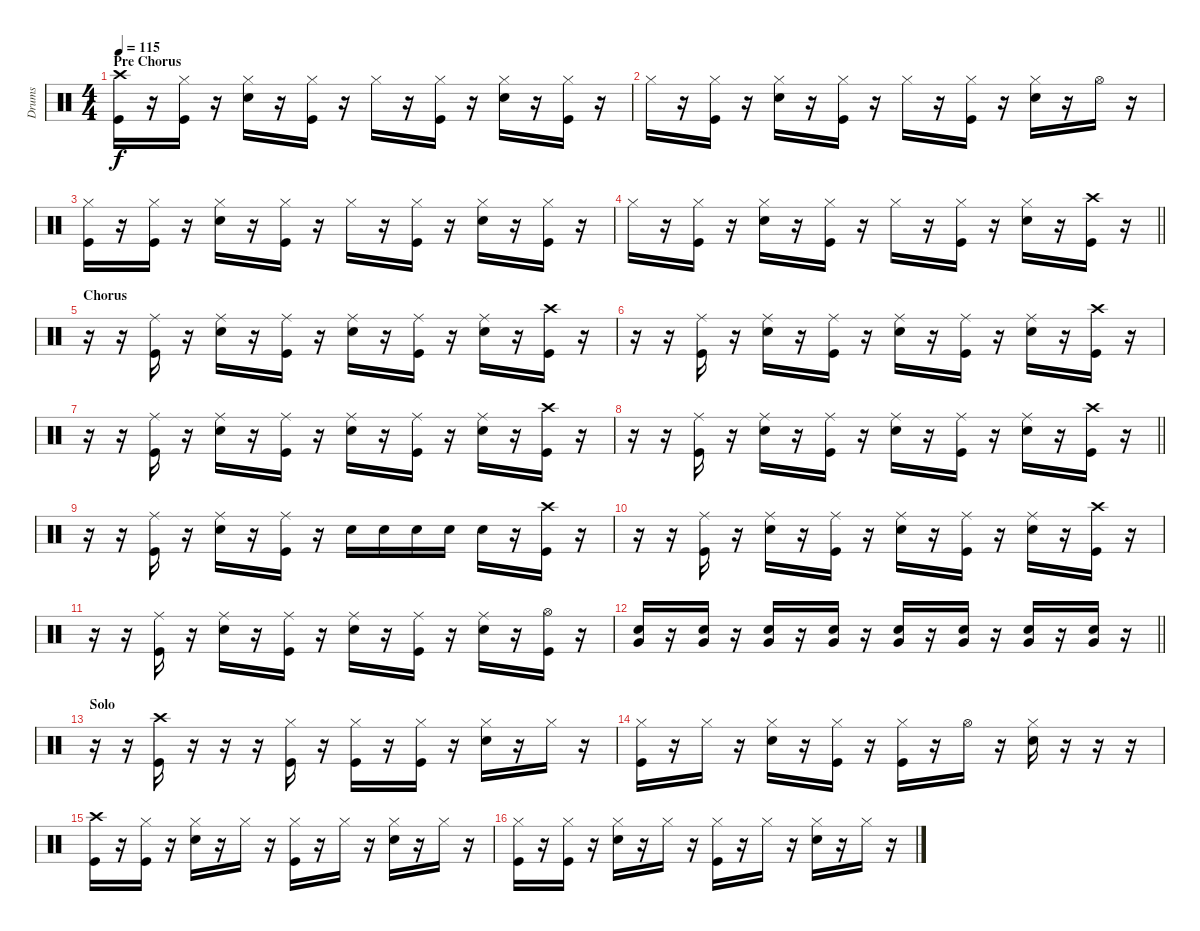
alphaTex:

\track ("Drums" "Drums") {instrument percussion}
\staff {score}
\articulation defaults
\ts (4 4)
\section ("" "Pre Chorus")
\tempo 115
\clef neutral
\ks c
("Crash high (hit)" "Kick (hit)").16{dy f} r.16 ("Hi-Hat (closed)" "Kick (hit)").16 r.16 ("Hi-Hat (closed)" "Snare (hit) 2").16 r.16 ("Hi-Hat (closed)" "Kick (hit)").16 r.16 "Hi-Hat (closed)".16 r.16 ("Hi-Hat (closed)" "Kick (hit)").16 r.16 ("Hi-Hat (closed)" "Snare (hit) 2").16 r.16 ("Hi-Hat (closed)" "Kick (hit)").16 r.16 |
"Hi-Hat (closed)".16 r.16 ("Hi-Hat (closed)" "Kick (hit)").16 r.16 ("Hi-Hat (closed)" "Snare (hit) 2").16 r.16 ("Hi-Hat (closed)" "Kick (hit)").16 r.16 "Hi-Hat (closed)".16 r.16 ("Hi-Hat (closed)" "Kick (hit)").16 r.16 ("Hi-Hat (closed)" "Snare (hit) 2").16 r.16 "Hi-Hat (open)".16 r.16 |
("Hi-Hat (closed)" "Kick (hit)").16 r.16 ("Hi-Hat (closed)" "Kick (hit)").16 r.16 ("Hi-Hat (closed)" "Snare (hit) 2").16 r.16 ("Hi-Hat (closed)" "Kick (hit)").16 r.16 "Hi-Hat (closed)".16 r.16 ("Hi-Hat (closed)" "Kick (hit)").16 r.16 ("Hi-Hat (closed)" "Snare (hit) 2").16 r.16 ("Hi-Hat (closed)" "Kick (hit)").16 r.16 |
\barLineRight lightlight "Hi-Hat (closed)".16
r.16 ("Hi-Hat (closed)" "Kick (hit)").16 r.16 ("Hi-Hat (closed)" "Snare (hit) 2").16 r.16 ("Hi-Hat (closed)" "Kick (hit)").16 r.16 "Hi-Hat (closed)".16 r.16 ("Hi-Hat (closed)" "Kick (hit)").16 r.16 ("Hi-Hat (closed)" "Snare (hit) 2").16 r.16 ("Crash high (hit)" "Kick (hit)").16 r.16 |
\section ("" "Chorus")
r.16 r.16 ("Ride (middle)" "Kick (hit)").16 r.16 ("Ride (middle)" "Snare (hit) 2").16 r.16 ("Ride (middle)" "Kick (hit)").16 r.16 ("Ride (middle)" "Snare (hit) 2").16 r.16 ("Ride (middle)" "Kick (hit)").16 r.16 ("Ride (middle)" "Snare (hit) 2").16 r.16 ("Crash high (hit)" "Kick (hit)").16 r.16 |
r.16 r.16 ("Ride (middle)" "Kick (hit)").16 r.16 ("Ride (middle)" "Snare (hit) 2").16 r.16 ("Ride (middle)" "Kick (hit)").16 r.16 ("Ride (middle)" "Snare (hit) 2").16 r.16 ("Ride (middle)" "Kick (hit)").16 r.16 ("Ride (middle)" "Snare (hit) 2").16 r.16 ("Crash high (hit)" "Kick (hit)").16 r.16 |
r.16 r.16 ("Ride (middle)" "Kick (hit)").16 r.16 ("Ride (middle)" "Snare (hit) 2").16 r.16 ("Ride (middle)" "Kick (hit)").16 r.16 ("Ride (middle)" "Snare (hit) 2").16 r.16 ("Ride (middle)" "Kick (hit)").16 r.16 ("Ride (middle)" "Snare (hit) 2").16 r.16 ("Crash high (hit)" "Kick (hit)").16 r.16 |
\barLineRight lightlight
r.16 r.16 ("Ride (middle)" "Kick (hit)").16 r.16 ("Ride (middle)" "Snare (hit) 2").16 r.16 ("Ride (middle)" "Kick (hit)").16 r.16 ("Ride (middle)" "Snare (hit) 2").16 r.16 ("Ride (middle)" "Kick (hit)").16 r.16 ("Ride (middle)" "Snare (hit) 2").16 r.16 ("Crash high (hit)" "Kick (hit)").16 r.16 |
r.16 r.16 ("Ride (middle)" "Kick (hit)").16 r.16 ("Ride (middle)" "Snare (hit) 2").16 r.16 ("Ride (middle)" "Kick (hit)").16 r.16 "Snare (hit) 2".16 "Snare (hit) 2".16 "Snare (hit) 2".16 "Snare (hit) 2".16 "Snare (hit) 2".16 r.16 ("Crash high (hit)" "Kick (hit)").16 r.16 |
r.16 r.16 ("Ride (middle)" "Kick (hit)").16 r.16 ("Ride (middle)" "Snare (hit) 2").16 r.16 ("Ride (middle)" "Kick (hit)").16 r.16 ("Ride (middle)" "Snare (hit) 2").16 r.16 ("Ride (middle)" "Kick (hit)").16 r.16 ("Ride (middle)" "Snare (hit) 2").16 r.16 ("Crash high (hit)" "Kick (hit)").16 r.16 |
r.16 r.16 ("Ride (middle)" "Kick (hit)").16 r.16 ("Ride (middle)" "Snare (hit) 2").16 r.16 ("Ride (middle)" "Kick (hit)").16 r.16 ("Ride (middle)" "Snare (hit) 2").16 r.16 ("Ride (middle)" "Kick (hit)").16 r.16 ("Ride (middle)" "Snare (hit) 2").16 r.16 ("Hi-Hat (open)" "Kick (hit)").16 r.16 |
\barLineRight lightlight
("Very Low Tom (hit)" "Snare (hit) 2").16 r.16 ("Very Low Tom (hit)" "Snare (hit) 2").16 r.16 ("Very Low Tom (hit)" "Snare (hit) 2").16 r.16 ("Very Low Tom (hit)" "Snare (hit) 2").16 r.16 ("Very Low Tom (hit)" "Snare (hit) 2").16 r.16 ("Very Low Tom (hit)" "Snare (hit) 2").16 r.16 ("Very Low Tom (hit)" "Snare (hit) 2").16 r.16 ("Very Low Tom (hit)" "Snare (hit) 2").16 r.16 |
\section ("" "Solo")
r.16 r.16 ("Crash high (hit)" "Kick (hit)").16 r.16 r.16 r.16 ("Hi-Hat (closed)" "Kick (hit)").16 r.16 ("Hi-Hat (closed)" "Kick (hit)").16 r.16 ("Hi-Hat (closed)" "Kick (hit)").16 r.16 ("Hi-Hat (closed)" "Snare (hit) 2").16 r.16 "Hi-Hat (closed)".16 r.16 |
("Hi-Hat (closed)" "Kick (hit)").16 r.16 "Hi-Hat (closed)".16 r.16 ("Hi-Hat (closed)" "Snare (hit) 2").16 r.16 ("Hi-Hat (closed)" "Kick (hit)").16 r.16 ("Hi-Hat (closed)" "Kick (hit)").16 r.16 "Hi-Hat (open)".16 r.16 ("Hi-Hat (closed)" "Snare (hit) 2").16 r.16 r.16 r.16 |
("Crash high (hit)" "Kick (hit)").16 r.16 ("Hi-Hat (closed)" "Kick (hit)").16 r.16 ("Hi-Hat (closed)" "Snare (hit) 2").16 r.16 "Hi-Hat (closed)".16 r.16 ("Hi-Hat (closed)" "Kick (hit)").16 r.16 "Hi-Hat (closed)".16 r.16 ("Hi-Hat (closed)" "Snare (hit) 2").16 r.16 "Hi-Hat (closed)".16 r.16 |
("Hi-Hat (closed)" "Kick (hit)").16 r.16 ("Hi-Hat (closed)" "Kick (hit)").16 r.16 ("Hi-Hat (closed)" "Snare (hit) 2").16 r.16 "Hi-Hat (closed)".16 r.16 ("Hi-Hat (closed)" "Kick (hit)").16 r.16 "Hi-Hat (closed)".16 r.16 ("Hi-Hat (closed)" "Snare (hit) 2").16 r.16 "Hi-Hat (closed)".16 r.16
